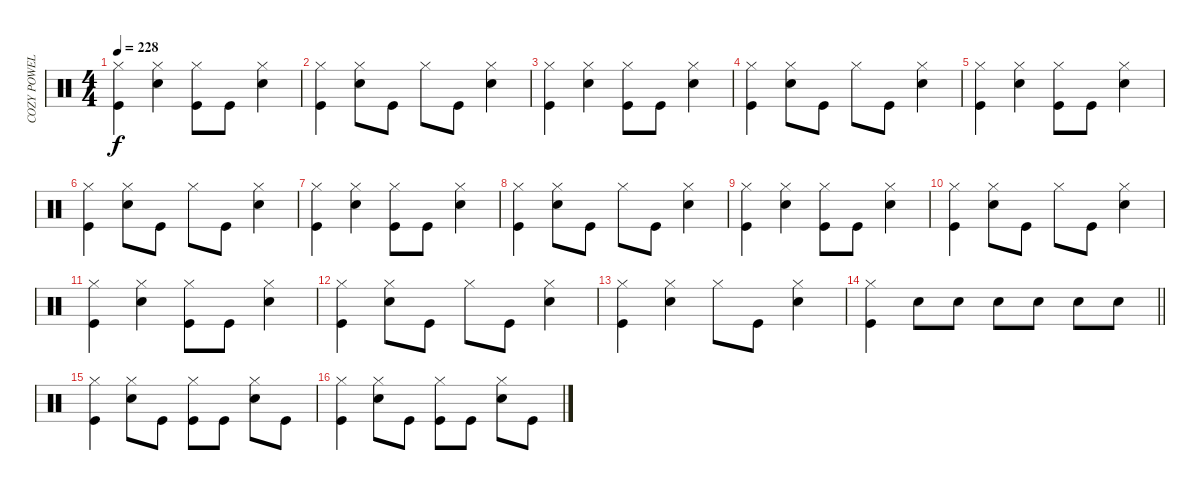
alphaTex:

\track ("COZY POWELL" "COZY POWEL") {instrument percussion}
\staff {score}
\articulation defaults
\ts (4 4)
\tempo 228
\clef neutral
\ks c
("Hi-Hat (closed)" "Kick (hit)").4{dy f} ("Hi-Hat (closed)" "Snare (hit) 2").4 ("Hi-Hat (closed)" "Kick (hit)").8 "Kick (hit)".8 ("Hi-Hat (closed)" "Snare (hit) 2").4 |
("Hi-Hat (closed)" "Kick (hit)").4 ("Hi-Hat (closed)" "Snare (hit) 2").8 "Kick (hit)".8 "Hi-Hat (closed)".8 "Kick (hit)".8 ("Hi-Hat (closed)" "Snare (hit) 2").4 |
("Hi-Hat (closed)" "Kick (hit)").4 ("Hi-Hat (closed)" "Snare (hit) 2").4 ("Hi-Hat (closed)" "Kick (hit)").8 "Kick (hit)".8 ("Hi-Hat (closed)" "Snare (hit) 2").4 |
("Hi-Hat (closed)" "Kick (hit)").4 ("Hi-Hat (closed)" "Snare (hit) 2").8 "Kick (hit)".8 "Hi-Hat (closed)".8 "Kick (hit)".8 ("Hi-Hat (closed)" "Snare (hit) 2").4 |
("Hi-Hat (closed)" "Kick (hit)").4 ("Hi-Hat (closed)" "Snare (hit) 2").4 ("Hi-Hat (closed)" "Kick (hit)").8 "Kick (hit)".8 ("Hi-Hat (closed)" "Snare (hit) 2").4 |
("Hi-Hat (closed)" "Kick (hit)").4 ("Hi-Hat (closed)" "Snare (hit) 2").8 "Kick (hit)".8 "Hi-Hat (closed)".8 "Kick (hit)".8 ("Hi-Hat (closed)" "Snare (hit) 2").4 |
("Hi-Hat (closed)" "Kick (hit)").4 ("Hi-Hat (closed)" "Snare (hit) 2").4 ("Hi-Hat (closed)" "Kick (hit)").8 "Kick (hit)".8 ("Hi-Hat (closed)" "Snare (hit) 2").4 |
("Hi-Hat (closed)" "Kick (hit)").4 ("Hi-Hat (closed)" "Snare (hit) 2").8 "Kick (hit)".8 "Hi-Hat (closed)".8 "Kick (hit)".8 ("Hi-Hat (closed)" "Snare (hit) 2").4 |
("Hi-Hat (closed)" "Kick (hit)").4 ("Hi-Hat (closed)" "Snare (hit) 2").4 ("Hi-Hat (closed)" "Kick (hit)").8 "Kick (hit)".8 ("Hi-Hat (closed)" "Snare (hit) 2").4 |
("Hi-Hat (closed)" "Kick (hit)").4 ("Hi-Hat (closed)" "Snare (hit) 2").8 "Kick (hit)".8 "Hi-Hat (closed)".8 "Kick (hit)".8 ("Hi-Hat (closed)" "Snare (hit) 2").4 |
("Hi-Hat (closed)" "Kick (hit)").4 ("Hi-Hat (closed)" "Snare (hit) 2").4 ("Hi-Hat (closed)" "Kick (hit)").8 "Kick (hit)".8 ("Hi-Hat (closed)" "Snare (hit) 2").4 |
("Hi-Hat (closed)" "Kick (hit)").4 ("Hi-Hat (closed)" "Snare (hit) 2").8 "Kick (hit)".8 "Hi-Hat (closed)".8 "Kick (hit)".8 ("Hi-Hat (closed)" "Snare (hit) 2").4 |
("Hi-Hat (closed)" "Kick (hit)").4 ("Hi-Hat (closed)" "Snare (hit) 2").4 "Hi-Hat (closed)".8 "Kick (hit)".8 ("Hi-Hat (closed)" "Snare (hit) 2").4 |
\barLineRight lightlight
("Hi-Hat (closed)" "Kick (hit)").4 "Snare (hit) 2".8 "Snare (hit) 2".8 "Snare (hit) 2".8 "Snare (hit) 2".8 "Snare (hit) 2".8 "Snare (hit) 2".8 |
("Hi-Hat (closed)" "Kick (hit)").4 ("Hi-Hat (closed)" "Snare (hit) 2").8 "Kick (hit)".8 ("Hi-Hat (closed)" "Kick (hit)").8 "Kick (hit)".8 ("Hi-Hat (closed)" "Snare (hit) 2").8 "Kick (hit)".8 |
("Hi-Hat (closed)" "Kick (hit)").4 ("Hi-Hat (closed)" "Snare (hit) 2").8 "Kick (hit)".8 ("Hi-Hat (closed)" "Kick (hit)").8 "Kick (hit)".8 ("Hi-Hat (closed)" "Snare (hit) 2").8 "Kick (hit)".8
